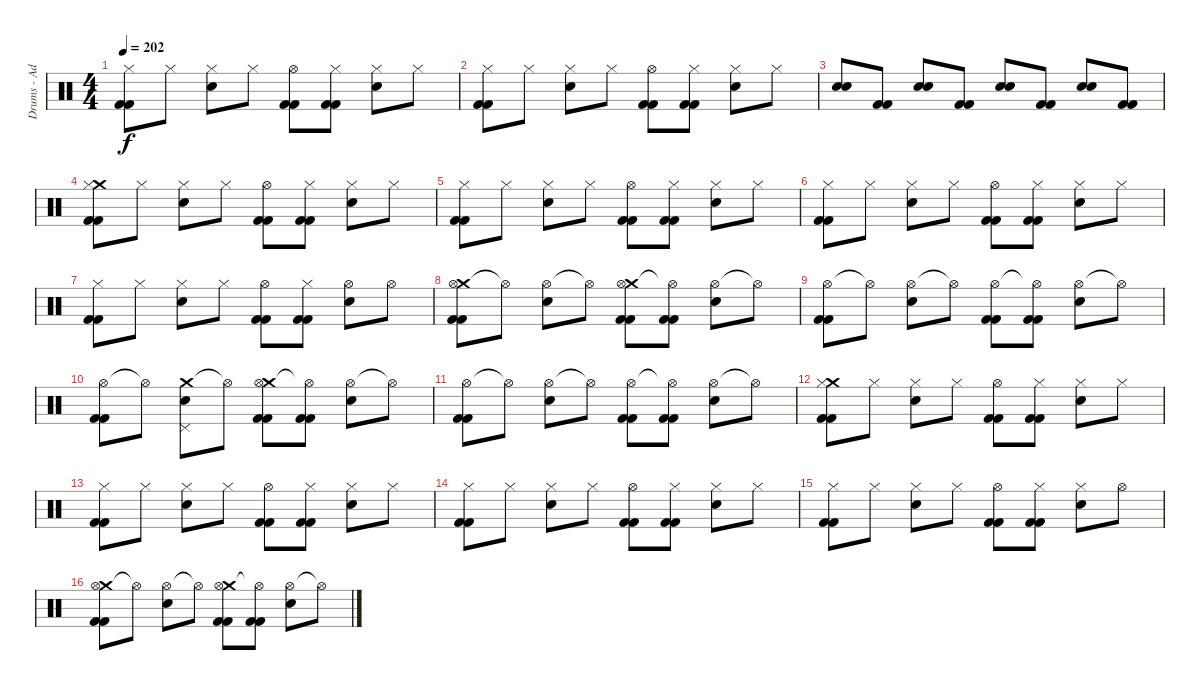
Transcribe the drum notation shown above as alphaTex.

\track ("Drums - Adam" "Drums - Ad") {instrument percussion}
\staff {score}
\articulation defaults
\ts (4 4)
\tempo 202
\clef neutral
\ks c
("Hi-Hat (closed)" "Kick (hit) 2" "Kick (hit) 2").8{dy f} "Hi-Hat (closed)".8 ("Hi-Hat (closed)" "Electric Snare (hit)").8 "Hi-Hat (closed)".8 ("Hi-Hat (open)" "Kick (hit) 2" "Kick (hit) 2").8 ("Hi-Hat (closed)" "Kick (hit) 2" "Kick (hit) 2").8 ("Hi-Hat (closed)" "Electric Snare (hit)").8 "Hi-Hat (closed)".8 |
("Hi-Hat (closed)" "Kick (hit) 2" "Kick (hit) 2").8 "Hi-Hat (closed)".8 ("Hi-Hat (closed)" "Electric Snare (hit)").8 "Hi-Hat (closed)".8 ("Hi-Hat (open)" "Kick (hit) 2" "Kick (hit) 2").8 ("Hi-Hat (closed)" "Kick (hit) 2" "Kick (hit) 2").8 ("Hi-Hat (closed)" "Electric Snare (hit)").8 "Hi-Hat (closed)".8 |
("Electric Snare (hit)" "Snare (hit) 2").8 ("Kick (hit) 2" "Kick (hit) 2").8 ("Electric Snare (hit)" "Snare (hit) 2").8 ("Kick (hit) 2" "Kick (hit) 2").8 ("Electric Snare (hit)" "Snare (hit) 2").8 ("Kick (hit) 2" "Kick (hit) 2").8 ("Electric Snare (hit)" "Snare (hit) 2").8 ("Kick (hit) 2" "Kick (hit) 2").8 |
("Crash medium (hit)" "Hi-Hat (closed)" "Kick (hit) 2" "Kick (hit) 2").8 "Hi-Hat (closed)".8 ("Hi-Hat (closed)" "Electric Snare (hit)").8 "Hi-Hat (closed)".8 ("Hi-Hat (open)" "Kick (hit) 2" "Kick (hit) 2").8 ("Hi-Hat (closed)" "Kick (hit) 2" "Kick (hit) 2").8 ("Hi-Hat (closed)" "Electric Snare (hit)").8 "Hi-Hat (closed)".8 |
("Hi-Hat (closed)" "Kick (hit) 2" "Kick (hit) 2").8 "Hi-Hat (closed)".8 ("Hi-Hat (closed)" "Electric Snare (hit)").8 "Hi-Hat (closed)".8 ("Hi-Hat (open)" "Kick (hit) 2" "Kick (hit) 2").8 ("Hi-Hat (closed)" "Kick (hit) 2" "Kick (hit) 2").8 ("Hi-Hat (closed)" "Electric Snare (hit)").8 "Hi-Hat (closed)".8 |
("Hi-Hat (closed)" "Kick (hit) 2" "Kick (hit) 2").8 "Hi-Hat (closed)".8 ("Hi-Hat (closed)" "Electric Snare (hit)").8 "Hi-Hat (closed)".8 ("Hi-Hat (open)" "Kick (hit) 2" "Kick (hit) 2").8 ("Hi-Hat (closed)" "Kick (hit) 2" "Kick (hit) 2").8 ("Hi-Hat (closed)" "Electric Snare (hit)").8 "Hi-Hat (closed)".8 |
("Hi-Hat (closed)" "Kick (hit) 2" "Kick (hit) 2").8 "Hi-Hat (closed)".8 ("Hi-Hat (closed)" "Electric Snare (hit)").8 "Hi-Hat (closed)".8 ("Hi-Hat (open)" "Kick (hit) 2" "Kick (hit) 2").8 ("Hi-Hat (closed)" "Kick (hit) 2" "Kick (hit) 2").8 ("Hi-Hat (open)" "Electric Snare (hit)").8 "Hi-Hat (open)".8 |
("Crash medium (hit)" "Hi-Hat (open)" "Kick (hit) 2" "Kick (hit) 2").8 "Hi-Hat (open)"{t}.8 ("Hi-Hat (open)" "Electric Snare (hit)").8 "Hi-Hat (open)"{t}.8 ("Crash medium (hit)" "Hi-Hat (open)" "Kick (hit) 2" "Kick (hit) 2").8 ("Hi-Hat (open)"{t} "Kick (hit) 2" "Kick (hit) 2").8 ("Hi-Hat (open)" "Electric Snare (hit)").8 "Hi-Hat (open)"{t}.8 |
("Hi-Hat (open)" "Kick (hit) 2" "Kick (hit) 2").8 "Hi-Hat (open)"{t}.8 ("Hi-Hat (open)" "Electric Snare (hit)").8 "Hi-Hat (open)"{t}.8 ("Hi-Hat (open)" "Kick (hit) 2" "Kick (hit) 2").8 ("Hi-Hat (open)"{t} "Kick (hit) 2" "Kick (hit) 2").8 ("Hi-Hat (open)" "Electric Snare (hit)").8 "Hi-Hat (open)"{t}.8 |
("Hi-Hat (open)" "Kick (hit) 2" "Kick (hit) 2").8 "Hi-Hat (open)"{t}.8 ("Crash medium (hit)" "Pedal Hi-Hat (hit)" "Electric Snare (hit)").8 "Hi-Hat (open)"{t}.8 ("Crash medium (hit)" "Hi-Hat (open)" "Kick (hit) 2" "Kick (hit) 2").8 ("Hi-Hat (open)"{t} "Kick (hit) 2" "Kick (hit) 2").8 ("Hi-Hat (open)" "Electric Snare (hit)").8 "Hi-Hat (open)"{t}.8 |
("Hi-Hat (open)" "Kick (hit) 2" "Kick (hit) 2").8 "Hi-Hat (open)"{t}.8 ("Hi-Hat (open)" "Electric Snare (hit)").8 "Hi-Hat (open)"{t}.8 ("Hi-Hat (open)" "Kick (hit) 2" "Kick (hit) 2").8 ("Hi-Hat (open)"{t} "Kick (hit) 2" "Kick (hit) 2").8 ("Hi-Hat (open)" "Electric Snare (hit)").8 "Hi-Hat (open)"{t}.8 |
("Crash medium (hit)" "Hi-Hat (closed)" "Kick (hit) 2" "Kick (hit) 2").8 "Hi-Hat (closed)".8 ("Hi-Hat (closed)" "Electric Snare (hit)").8 "Hi-Hat (closed)".8 ("Hi-Hat (open)" "Kick (hit) 2" "Kick (hit) 2").8 ("Hi-Hat (closed)" "Kick (hit) 2" "Kick (hit) 2").8 ("Hi-Hat (closed)" "Electric Snare (hit)").8 "Hi-Hat (closed)".8 |
("Hi-Hat (closed)" "Kick (hit) 2" "Kick (hit) 2").8 "Hi-Hat (closed)".8 ("Hi-Hat (closed)" "Electric Snare (hit)").8 "Hi-Hat (closed)".8 ("Hi-Hat (open)" "Kick (hit) 2" "Kick (hit) 2").8 ("Hi-Hat (closed)" "Kick (hit) 2" "Kick (hit) 2").8 ("Hi-Hat (closed)" "Electric Snare (hit)").8 "Hi-Hat (closed)".8 |
("Hi-Hat (closed)" "Kick (hit) 2" "Kick (hit) 2").8 "Hi-Hat (closed)".8 ("Hi-Hat (closed)" "Electric Snare (hit)").8 "Hi-Hat (closed)".8 ("Hi-Hat (open)" "Kick (hit) 2" "Kick (hit) 2").8 ("Hi-Hat (closed)" "Kick (hit) 2" "Kick (hit) 2").8 ("Hi-Hat (closed)" "Electric Snare (hit)").8 "Hi-Hat (closed)".8 |
("Hi-Hat (closed)" "Kick (hit) 2" "Kick (hit) 2").8 "Hi-Hat (closed)".8 ("Hi-Hat (closed)" "Electric Snare (hit)").8 "Hi-Hat (closed)".8 ("Hi-Hat (open)" "Kick (hit) 2" "Kick (hit) 2").8 ("Hi-Hat (closed)" "Kick (hit) 2" "Kick (hit) 2").8 ("Hi-Hat (closed)" "Electric Snare (hit)").8 "Hi-Hat (open)".8 |
("Crash medium (hit)" "Hi-Hat (open)" "Kick (hit) 2" "Kick (hit) 2").8 "Hi-Hat (open)"{t}.8 ("Hi-Hat (open)" "Electric Snare (hit)").8 "Hi-Hat (open)"{t}.8 ("Crash medium (hit)" "Hi-Hat (open)" "Kick (hit) 2" "Kick (hit) 2").8 ("Hi-Hat (open)"{t} "Kick (hit) 2" "Kick (hit) 2").8 ("Hi-Hat (open)" "Electric Snare (hit)").8 "Hi-Hat (open)"{t}.8
